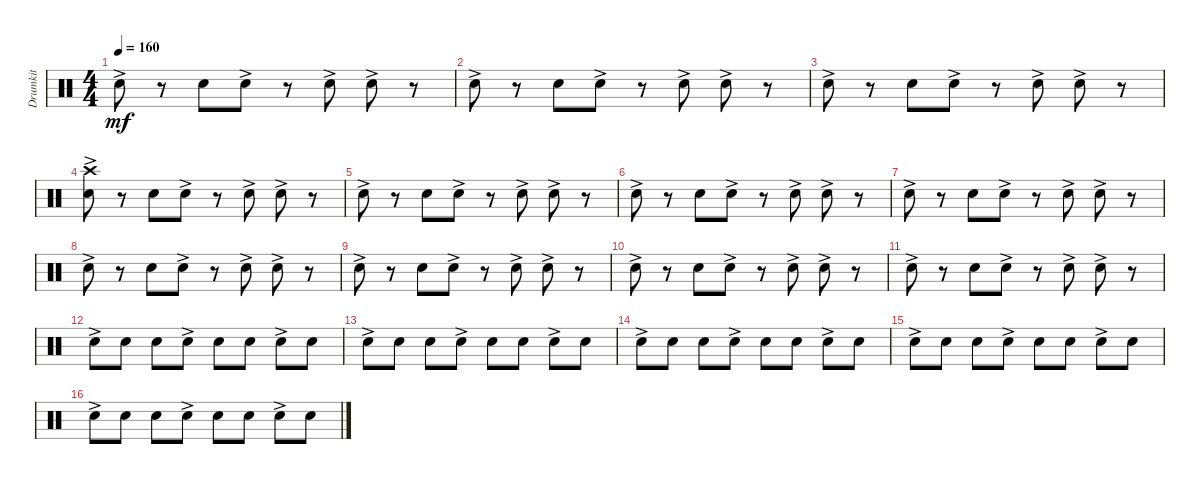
\track ("Drumkit" "Drumkit") {instrument percussion}
\staff {score}
\articulation defaults
\ts (4 4)
\tempo 160
\clef neutral
\ks c "Snare (hit) 2"{ac}.8{dy mf}
r.8 "Snare (hit) 2".8 "Snare (hit) 2"{ac}.8 r.8 "Snare (hit) 2"{ac}.8 "Snare (hit) 2"{ac}.8 r.8 |
"Snare (hit) 2"{ac}.8 r.8 "Snare (hit) 2".8 "Snare (hit) 2"{ac}.8 r.8 "Snare (hit) 2"{ac}.8 "Snare (hit) 2"{ac}.8 r.8 |
"Snare (hit) 2"{ac}.8 r.8 "Snare (hit) 2".8 "Snare (hit) 2"{ac}.8 r.8 "Snare (hit) 2"{ac}.8 "Snare (hit) 2"{ac}.8 r.8 |
("Snare (hit) 2"{ac} "Crash high (hit)").8 r.8 "Snare (hit) 2".8 "Snare (hit) 2"{ac}.8 r.8 "Snare (hit) 2"{ac}.8 "Snare (hit) 2"{ac}.8 r.8 |
"Snare (hit) 2"{ac}.8 r.8 "Snare (hit) 2".8 "Snare (hit) 2"{ac}.8 r.8 "Snare (hit) 2"{ac}.8 "Snare (hit) 2"{ac}.8 r.8 |
"Snare (hit) 2"{ac}.8 r.8 "Snare (hit) 2".8 "Snare (hit) 2"{ac}.8 r.8 "Snare (hit) 2"{ac}.8 "Snare (hit) 2"{ac}.8 r.8 |
"Snare (hit) 2"{ac}.8 r.8 "Snare (hit) 2".8 "Snare (hit) 2"{ac}.8 r.8 "Snare (hit) 2"{ac}.8 "Snare (hit) 2"{ac}.8 r.8 |
"Snare (hit) 2"{ac}.8 r.8 "Snare (hit) 2".8 "Snare (hit) 2"{ac}.8 r.8 "Snare (hit) 2"{ac}.8 "Snare (hit) 2"{ac}.8 r.8 |
"Snare (hit) 2"{ac}.8 r.8 "Snare (hit) 2".8 "Snare (hit) 2"{ac}.8 r.8 "Snare (hit) 2"{ac}.8 "Snare (hit) 2"{ac}.8 r.8 |
"Snare (hit) 2"{ac}.8 r.8 "Snare (hit) 2".8 "Snare (hit) 2"{ac}.8 r.8 "Snare (hit) 2"{ac}.8 "Snare (hit) 2"{ac}.8 r.8 |
"Snare (hit) 2"{ac}.8 r.8 "Snare (hit) 2".8 "Snare (hit) 2"{ac}.8 r.8 "Snare (hit) 2"{ac}.8 "Snare (hit) 2"{ac}.8 r.8 |
"Snare (hit) 2"{ac}.8 "Snare (hit) 2".8 "Snare (hit) 2".8 "Snare (hit) 2"{ac}.8 "Snare (hit) 2".8 "Snare (hit) 2".8 "Snare (hit) 2"{ac}.8 "Snare (hit) 2".8 |
"Snare (hit) 2"{ac}.8 "Snare (hit) 2".8 "Snare (hit) 2".8 "Snare (hit) 2"{ac}.8 "Snare (hit) 2".8 "Snare (hit) 2".8 "Snare (hit) 2"{ac}.8 "Snare (hit) 2".8 |
"Snare (hit) 2"{ac}.8 "Snare (hit) 2".8 "Snare (hit) 2".8 "Snare (hit) 2"{ac}.8 "Snare (hit) 2".8 "Snare (hit) 2".8 "Snare (hit) 2"{ac}.8 "Snare (hit) 2".8 |
"Snare (hit) 2"{ac}.8 "Snare (hit) 2".8 "Snare (hit) 2".8 "Snare (hit) 2"{ac}.8 "Snare (hit) 2".8 "Snare (hit) 2".8 "Snare (hit) 2"{ac}.8 "Snare (hit) 2".8 |
"Snare (hit) 2"{ac}.8 "Snare (hit) 2".8 "Snare (hit) 2".8 "Snare (hit) 2"{ac}.8 "Snare (hit) 2".8 "Snare (hit) 2".8 "Snare (hit) 2"{ac}.8 "Snare (hit) 2".8
